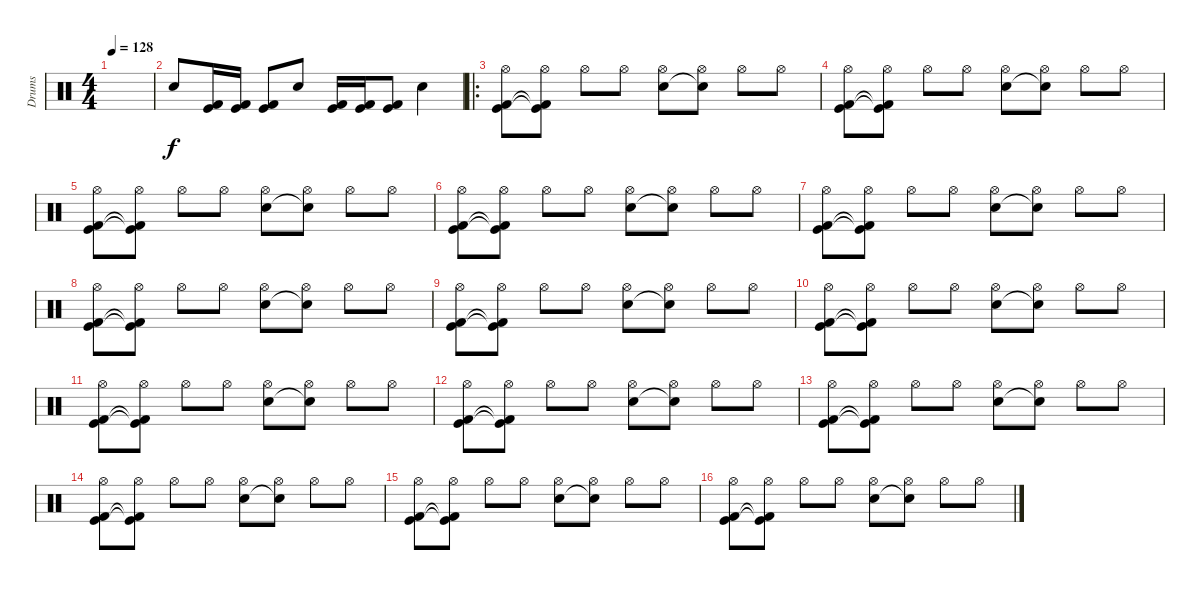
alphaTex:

\track ("Drums" "Drums") {instrument percussion}
\staff {score}
\articulation defaults
\ts (4 4)
\tempo 128
\clef neutral
\ks c
|
"Snare (hit) 2".8 ("Kick (hit) 2" "Kick (hit)").16 ("Kick (hit) 2" "Kick (hit)").16 ("Kick (hit) 2" "Kick (hit)").8 "Snare (hit) 2".8 ("Kick (hit) 2" "Kick (hit)").16 ("Kick (hit) 2" "Kick (hit)").16 ("Kick (hit) 2" "Kick (hit)").8 "Snare (hit) 2".4 |
\ro
("Hi-Hat (open)" "Kick (hit) 2" "Kick (hit)").8 ("Hi-Hat (open)" "Kick (hit) 2"{t} "Kick (hit)"{t}).8 "Hi-Hat (open)".8 "Hi-Hat (open)".8 ("Hi-Hat (open)" "Snare (hit) 2").8 ("Hi-Hat (open)" "Snare (hit) 2"{t}).8 "Hi-Hat (open)".8 "Hi-Hat (open)".8 |
("Hi-Hat (open)" "Kick (hit) 2" "Kick (hit)").8 ("Hi-Hat (open)" "Kick (hit) 2"{t} "Kick (hit)"{t}).8 "Hi-Hat (open)".8 "Hi-Hat (open)".8 ("Hi-Hat (open)" "Snare (hit) 2").8 ("Hi-Hat (open)" "Snare (hit) 2"{t}).8 "Hi-Hat (open)".8 "Hi-Hat (open)".8 |
("Hi-Hat (open)" "Kick (hit) 2" "Kick (hit)").8 ("Hi-Hat (open)" "Kick (hit) 2"{t} "Kick (hit)"{t}).8 "Hi-Hat (open)".8 "Hi-Hat (open)".8 ("Hi-Hat (open)" "Snare (hit) 2").8 ("Hi-Hat (open)" "Snare (hit) 2"{t}).8 "Hi-Hat (open)".8 "Hi-Hat (open)".8 |
("Hi-Hat (open)" "Kick (hit) 2" "Kick (hit)").8 ("Hi-Hat (open)" "Kick (hit) 2"{t} "Kick (hit)"{t}).8 "Hi-Hat (open)".8 "Hi-Hat (open)".8 ("Hi-Hat (open)" "Snare (hit) 2").8 ("Hi-Hat (open)" "Snare (hit) 2"{t}).8 "Hi-Hat (open)".8 "Hi-Hat (open)".8 |
("Hi-Hat (open)" "Kick (hit) 2" "Kick (hit)").8 ("Hi-Hat (open)" "Kick (hit) 2"{t} "Kick (hit)"{t}).8 "Hi-Hat (open)".8 "Hi-Hat (open)".8 ("Hi-Hat (open)" "Snare (hit) 2").8 ("Hi-Hat (open)" "Snare (hit) 2"{t}).8 "Hi-Hat (open)".8 "Hi-Hat (open)".8 |
("Hi-Hat (open)" "Kick (hit) 2" "Kick (hit)").8 ("Hi-Hat (open)" "Kick (hit) 2"{t} "Kick (hit)"{t}).8 "Hi-Hat (open)".8 "Hi-Hat (open)".8 ("Hi-Hat (open)" "Snare (hit) 2").8 ("Hi-Hat (open)" "Snare (hit) 2"{t}).8 "Hi-Hat (open)".8 "Hi-Hat (open)".8 |
("Hi-Hat (open)" "Kick (hit) 2" "Kick (hit)").8 ("Hi-Hat (open)" "Kick (hit) 2"{t} "Kick (hit)"{t}).8 "Hi-Hat (open)".8 "Hi-Hat (open)".8 ("Hi-Hat (open)" "Snare (hit) 2").8 ("Hi-Hat (open)" "Snare (hit) 2"{t}).8 "Hi-Hat (open)".8 "Hi-Hat (open)".8 |
("Hi-Hat (open)" "Kick (hit) 2" "Kick (hit)").8 ("Hi-Hat (open)" "Kick (hit) 2"{t} "Kick (hit)"{t}).8 "Hi-Hat (open)".8 "Hi-Hat (open)".8 ("Hi-Hat (open)" "Snare (hit) 2").8 ("Hi-Hat (open)" "Snare (hit) 2"{t}).8 "Hi-Hat (open)".8 "Hi-Hat (open)".8 |
("Hi-Hat (open)" "Kick (hit) 2" "Kick (hit)").8 ("Hi-Hat (open)" "Kick (hit) 2"{t} "Kick (hit)"{t}).8 "Hi-Hat (open)".8 "Hi-Hat (open)".8 ("Hi-Hat (open)" "Snare (hit) 2").8 ("Hi-Hat (open)" "Snare (hit) 2"{t}).8 "Hi-Hat (open)".8 "Hi-Hat (open)".8 |
("Hi-Hat (open)" "Kick (hit) 2" "Kick (hit)").8 ("Hi-Hat (open)" "Kick (hit) 2"{t} "Kick (hit)"{t}).8 "Hi-Hat (open)".8 "Hi-Hat (open)".8 ("Hi-Hat (open)" "Snare (hit) 2").8 ("Hi-Hat (open)" "Snare (hit) 2"{t}).8 "Hi-Hat (open)".8 "Hi-Hat (open)".8 |
("Hi-Hat (open)" "Kick (hit) 2" "Kick (hit)").8 ("Hi-Hat (open)" "Kick (hit) 2"{t} "Kick (hit)"{t}).8 "Hi-Hat (open)".8 "Hi-Hat (open)".8 ("Hi-Hat (open)" "Snare (hit) 2").8 ("Hi-Hat (open)" "Snare (hit) 2"{t}).8 "Hi-Hat (open)".8 "Hi-Hat (open)".8 |
("Hi-Hat (open)" "Kick (hit) 2" "Kick (hit)").8 ("Hi-Hat (open)" "Kick (hit) 2"{t} "Kick (hit)"{t}).8 "Hi-Hat (open)".8 "Hi-Hat (open)".8 ("Hi-Hat (open)" "Snare (hit) 2").8 ("Hi-Hat (open)" "Snare (hit) 2"{t}).8 "Hi-Hat (open)".8 "Hi-Hat (open)".8 |
("Hi-Hat (open)" "Kick (hit) 2" "Kick (hit)").8 ("Hi-Hat (open)" "Kick (hit) 2"{t} "Kick (hit)"{t}).8 "Hi-Hat (open)".8 "Hi-Hat (open)".8 ("Hi-Hat (open)" "Snare (hit) 2").8 ("Hi-Hat (open)" "Snare (hit) 2"{t}).8 "Hi-Hat (open)".8 "Hi-Hat (open)".8 |
("Hi-Hat (open)" "Kick (hit) 2" "Kick (hit)").8 ("Hi-Hat (open)" "Kick (hit) 2"{t} "Kick (hit)"{t}).8 "Hi-Hat (open)".8 "Hi-Hat (open)".8 ("Hi-Hat (open)" "Snare (hit) 2").8 ("Hi-Hat (open)" "Snare (hit) 2"{t}).8 "Hi-Hat (open)".8 "Hi-Hat (open)".8
